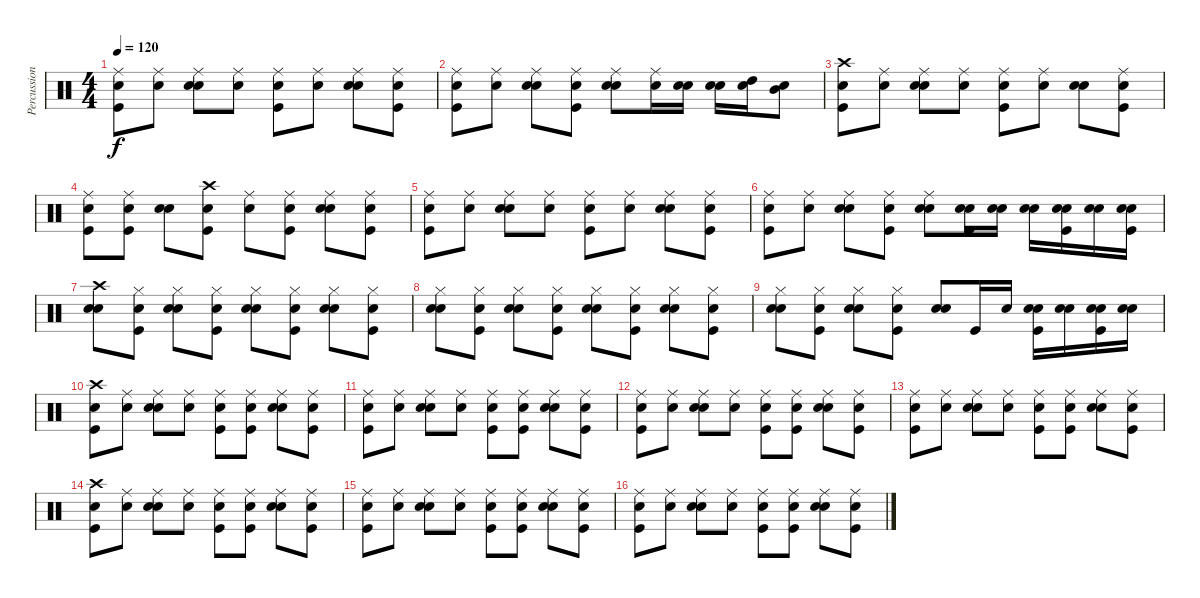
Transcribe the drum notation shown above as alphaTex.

\track ("Percussion" "Percussion") {instrument percussion}
\staff {score}
\articulation defaults
\ts (4 4)
\tempo 120
\clef neutral
\ks c
("Snare (hit)" "Kick (hit)" "Ride (middle)").8{dy f} ("Snare (hit)" "Ride (middle)").8 ("Snare (hit)" "Electric Snare (hit)" "Ride (middle)").8 ("Snare (hit)" "Ride (middle)").8 ("Snare (hit)" "Kick (hit)" "Ride (middle)").8 ("Snare (hit)" "Ride (middle)").8 ("Snare (hit)" "Electric Snare (hit)" "Ride (middle)").8 ("Snare (hit)" "Kick (hit)" "Ride (middle)").8 |
("Snare (hit)" "Kick (hit)" "Ride (middle)").8 ("Snare (hit)" "Ride (middle)").8 ("Snare (hit)" "Electric Snare (hit)" "Ride (middle)").8 ("Snare (hit)" "Kick (hit)" "Ride (middle)").8 ("Snare (hit)" "Electric Snare (hit)" "Ride (middle)").8 ("Snare (hit)" "Ride (middle)").16 ("Snare (hit)" "Electric Snare (hit)").16 ("Snare (hit)" "Electric Snare (hit)").16 ("Snare (hit)" "High Tom (hit)").16 ("Snare (hit)" "Mid Tom (hit)").8 |
("Snare (hit)" "Kick (hit)" "Crash high (hit)").8 ("Snare (hit)" "Ride (middle)").8 ("Snare (hit)" "Electric Snare (hit)" "Ride (middle)").8 ("Snare (hit)" "Ride (middle)").8 ("Snare (hit)" "Kick (hit)" "Ride (middle)").8 ("Snare (hit)" "Ride (middle)").8 ("Snare (hit)" "Electric Snare (hit)").8 ("Snare (hit)" "Kick (hit)" "Ride (middle)").8 |
("Snare (hit)" "Kick (hit)" "Ride (middle)").8 ("Snare (hit)" "Kick (hit)" "Ride (middle)").8 ("Snare (hit)" "Electric Snare (hit)").8 ("Snare (hit)" "Kick (hit)" "Crash high (hit)").8 ("Snare (hit)" "Ride (middle)").8 ("Snare (hit)" "Kick (hit)" "Ride (middle)").8 ("Snare (hit)" "Electric Snare (hit)" "Ride (middle)").8 ("Snare (hit)" "Kick (hit)" "Ride (middle)").8 |
("Snare (hit)" "Kick (hit)" "Ride (middle)").8 ("Snare (hit)" "Ride (middle)").8 ("Snare (hit)" "Electric Snare (hit)" "Ride (middle)").8 ("Snare (hit)" "Ride (middle)").8 ("Snare (hit)" "Kick (hit)" "Ride (middle)").8 ("Snare (hit)" "Ride (middle)").8 ("Snare (hit)" "Electric Snare (hit)" "Ride (middle)").8 ("Snare (hit)" "Kick (hit)" "Ride (middle)").8 |
("Snare (hit)" "Kick (hit)" "Ride (middle)").8 ("Snare (hit)" "Ride (middle)").8 ("Snare (hit)" "Electric Snare (hit)" "Ride (middle)").8 ("Snare (hit)" "Kick (hit)" "Ride (middle)").8 ("Snare (hit)" "Electric Snare (hit)" "Ride (middle)").8 ("Snare (hit)" "Kick (hit)" "Electric Snare (hit)").16 ("Snare (hit)" "Electric Snare (hit)").16 ("Snare (hit)" "Electric Snare (hit)").16 ("Snare (hit)" "Kick (hit)" "Electric Snare (hit)").16 ("Snare (hit)" "Electric Snare (hit)").16 ("Snare (hit)" "Kick (hit)" "Electric Snare (hit)").16 |
("Snare (hit)" "Electric Snare (hit)" "Crash high (hit)").8 ("Snare (hit)" "Kick (hit)" "Hi-Hat (closed)").8 ("Snare (hit)" "Electric Snare (hit)" "Hi-Hat (closed)").8 ("Snare (hit)" "Kick (hit)" "Hi-Hat (closed)").8 ("Snare (hit)" "Electric Snare (hit)" "Hi-Hat (closed)").8 ("Snare (hit)" "Kick (hit)" "Hi-Hat (closed)").8 ("Snare (hit)" "Electric Snare (hit)" "Hi-Hat (closed)").8 ("Snare (hit)" "Kick (hit)" "Hi-Hat (closed)").8 |
("Snare (hit)" "Electric Snare (hit)" "Hi-Hat (closed)").8 ("Snare (hit)" "Kick (hit)" "Hi-Hat (closed)").8 ("Snare (hit)" "Electric Snare (hit)" "Hi-Hat (closed)").8 ("Snare (hit)" "Kick (hit)" "Hi-Hat (closed)").8 ("Snare (hit)" "Electric Snare (hit)" "Hi-Hat (closed)").8 ("Snare (hit)" "Kick (hit)" "Hi-Hat (closed)").8 ("Snare (hit)" "Electric Snare (hit)" "Hi-Hat (closed)").8 ("Snare (hit)" "Kick (hit)" "Hi-Hat (closed)").8 |
("Snare (hit)" "Electric Snare (hit)" "Hi-Hat (closed)").8 ("Snare (hit)" "Kick (hit)" "Hi-Hat (closed)").8 ("Snare (hit)" "Electric Snare (hit)" "Hi-Hat (closed)").8 ("Snare (hit)" "Kick (hit)" "Hi-Hat (closed)").8 ("Snare (hit)" "Electric Snare (hit)").8 "Kick (hit)".16 "Electric Snare (hit)".16 ("Snare (hit)" "Kick (hit)" "Electric Snare (hit)").16 ("Snare (hit)" "Electric Snare (hit)").16 ("Snare (hit)" "Kick (hit)" "Electric Snare (hit)").16 ("Snare (hit)" "Electric Snare (hit)").16 |
("Snare (hit)" "Kick (hit)" "Crash high (hit)").8 ("Snare (hit)" "Ride (middle)").8 ("Snare (hit)" "Electric Snare (hit)" "Ride (middle)").8 ("Snare (hit)" "Ride (middle)").8 ("Snare (hit)" "Kick (hit)" "Ride (middle)").8 ("Snare (hit)" "Kick (hit)" "Ride (middle)").8 ("Snare (hit)" "Electric Snare (hit)" "Ride (middle)").8 ("Snare (hit)" "Kick (hit)" "Ride (middle)").8 |
("Snare (hit)" "Kick (hit)" "Ride (middle)").8 ("Snare (hit)" "Ride (middle)").8 ("Snare (hit)" "Electric Snare (hit)" "Ride (middle)").8 ("Snare (hit)" "Ride (middle)").8 ("Snare (hit)" "Kick (hit)" "Ride (middle)").8 ("Snare (hit)" "Kick (hit)" "Ride (middle)").8 ("Snare (hit)" "Electric Snare (hit)" "Ride (middle)").8 ("Snare (hit)" "Kick (hit)" "Ride (middle)").8 |
("Snare (hit)" "Kick (hit)" "Ride (middle)").8 ("Snare (hit)" "Ride (middle)").8 ("Snare (hit)" "Electric Snare (hit)" "Ride (middle)").8 ("Snare (hit)" "Ride (middle)").8 ("Snare (hit)" "Kick (hit)" "Ride (middle)").8 ("Snare (hit)" "Kick (hit)" "Ride (middle)").8 ("Snare (hit)" "Electric Snare (hit)" "Ride (middle)").8 ("Snare (hit)" "Kick (hit)" "Ride (middle)").8 |
("Snare (hit)" "Kick (hit)" "Ride (middle)").8 ("Snare (hit)" "Ride (middle)").8 ("Snare (hit)" "Electric Snare (hit)" "Ride (middle)").8 ("Snare (hit)" "Ride (middle)").8 ("Snare (hit)" "Kick (hit)" "Ride (middle)").8 ("Snare (hit)" "Kick (hit)" "Ride (middle)").8 ("Snare (hit)" "Electric Snare (hit)" "Ride (middle)").8 ("Snare (hit)" "Kick (hit)" "Ride (middle)").8 |
("Snare (hit)" "Kick (hit)" "Crash high (hit)").8 ("Snare (hit)" "Ride (middle)").8 ("Snare (hit)" "Electric Snare (hit)" "Ride (middle)").8 ("Snare (hit)" "Ride (middle)").8 ("Snare (hit)" "Kick (hit)" "Ride (middle)").8 ("Snare (hit)" "Kick (hit)" "Ride (middle)").8 ("Snare (hit)" "Electric Snare (hit)" "Ride (middle)").8 ("Snare (hit)" "Kick (hit)" "Ride (middle)").8 |
("Snare (hit)" "Kick (hit)" "Ride (middle)").8 ("Snare (hit)" "Ride (middle)").8 ("Snare (hit)" "Electric Snare (hit)" "Ride (middle)").8 ("Snare (hit)" "Ride (middle)").8 ("Snare (hit)" "Kick (hit)" "Ride (middle)").8 ("Snare (hit)" "Kick (hit)" "Ride (middle)").8 ("Snare (hit)" "Electric Snare (hit)" "Ride (middle)").8 ("Snare (hit)" "Kick (hit)" "Ride (middle)").8 |
("Snare (hit)" "Kick (hit)" "Ride (middle)").8 ("Snare (hit)" "Ride (middle)").8 ("Snare (hit)" "Electric Snare (hit)" "Ride (middle)").8 ("Snare (hit)" "Ride (middle)").8 ("Snare (hit)" "Kick (hit)" "Ride (middle)").8 ("Snare (hit)" "Kick (hit)" "Ride (middle)").8 ("Snare (hit)" "Electric Snare (hit)" "Ride (middle)").8 ("Snare (hit)" "Kick (hit)" "Ride (middle)").8
